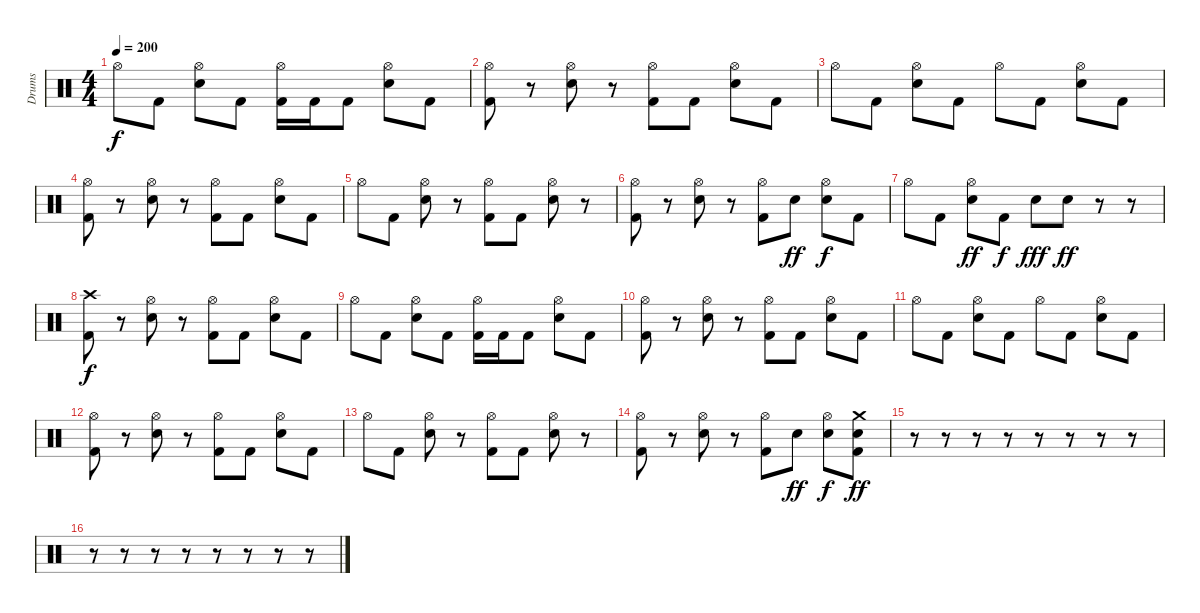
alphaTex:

\track ("Drums" "Drums") {instrument percussion}
\staff {score}
\articulation defaults
\ts (4 4)
\tempo 200
\clef neutral
\ks c "Hi-Hat (open)".8{dy f} "Kick (hit) 2".8
("Electric Snare (hit)" "Hi-Hat (open)").8 "Kick (hit) 2".8 ("Kick (hit) 2" "Hi-Hat (open)").16 "Kick (hit) 2".16 "Kick (hit) 2".8 ("Electric Snare (hit)" "Hi-Hat (open)").8 "Kick (hit) 2".8 |
("Kick (hit) 2" "Hi-Hat (open)").8 r.8 ("Electric Snare (hit)" "Hi-Hat (open)").8 r.8 ("Kick (hit) 2" "Hi-Hat (open)").8 "Kick (hit) 2".8 ("Electric Snare (hit)" "Hi-Hat (open)").8 "Kick (hit) 2".8 |
"Hi-Hat (open)".8 "Kick (hit) 2".8 ("Electric Snare (hit)" "Hi-Hat (open)").8 "Kick (hit) 2".8 "Hi-Hat (open)".8 "Kick (hit) 2".8 ("Electric Snare (hit)" "Hi-Hat (open)").8 "Kick (hit) 2".8 |
("Kick (hit) 2" "Hi-Hat (open)").8 r.8 ("Electric Snare (hit)" "Hi-Hat (open)").8 r.8 ("Kick (hit) 2" "Hi-Hat (open)").8 "Kick (hit) 2".8 ("Electric Snare (hit)" "Hi-Hat (open)").8 "Kick (hit) 2".8 |
"Hi-Hat (open)".8 "Kick (hit) 2".8 ("Electric Snare (hit)" "Hi-Hat (open)").8 r.8 ("Kick (hit) 2" "Hi-Hat (open)").8 "Kick (hit) 2".8 ("Electric Snare (hit)" "Hi-Hat (open)").8 r.8 |
("Kick (hit) 2" "Hi-Hat (open)").8 r.8 ("Electric Snare (hit)" "Hi-Hat (open)").8 r.8 ("Kick (hit) 2" "Hi-Hat (open)").8 "Electric Snare (hit)".8{dy ff} ("Electric Snare (hit)" "Hi-Hat (open)").8{dy f} "Kick (hit) 2".8 |
"Hi-Hat (open)".8 "Kick (hit) 2".8 ("Electric Snare (hit)" "Hi-Hat (open)").8{dy ff} "Kick (hit) 2".8{dy f} "Electric Snare (hit)".8{dy fff} "Electric Snare (hit)".8{dy ff} r.8 r.8 |
("Kick (hit) 2" "Crash high (hit)").8{dy f} r.8 ("Electric Snare (hit)" "Hi-Hat (open)").8 r.8 ("Kick (hit) 2" "Hi-Hat (open)").8 "Kick (hit) 2".8 ("Electric Snare (hit)" "Hi-Hat (open)").8 "Kick (hit) 2".8 |
"Hi-Hat (open)".8 "Kick (hit) 2".8 ("Electric Snare (hit)" "Hi-Hat (open)").8 "Kick (hit) 2".8 ("Kick (hit) 2" "Hi-Hat (open)").16 "Kick (hit) 2".16 "Kick (hit) 2".8 ("Electric Snare (hit)" "Hi-Hat (open)").8 "Kick (hit) 2".8 |
("Kick (hit) 2" "Hi-Hat (open)").8 r.8 ("Electric Snare (hit)" "Hi-Hat (open)").8 r.8 ("Kick (hit) 2" "Hi-Hat (open)").8 "Kick (hit) 2".8 ("Electric Snare (hit)" "Hi-Hat (open)").8 "Kick (hit) 2".8 |
"Hi-Hat (open)".8 "Kick (hit) 2".8 ("Electric Snare (hit)" "Hi-Hat (open)").8 "Kick (hit) 2".8 "Hi-Hat (open)".8 "Kick (hit) 2".8 ("Electric Snare (hit)" "Hi-Hat (open)").8 "Kick (hit) 2".8 |
("Kick (hit) 2" "Hi-Hat (open)").8 r.8 ("Electric Snare (hit)" "Hi-Hat (open)").8 r.8 ("Kick (hit) 2" "Hi-Hat (open)").8 "Kick (hit) 2".8 ("Electric Snare (hit)" "Hi-Hat (open)").8 "Kick (hit) 2".8 |
"Hi-Hat (open)".8 "Kick (hit) 2".8 ("Electric Snare (hit)" "Hi-Hat (open)").8 r.8 ("Kick (hit) 2" "Hi-Hat (open)").8 "Kick (hit) 2".8 ("Electric Snare (hit)" "Hi-Hat (open)").8 r.8 |
("Kick (hit) 2" "Hi-Hat (open)").8 r.8 ("Electric Snare (hit)" "Hi-Hat (open)").8 r.8 ("Kick (hit) 2" "Hi-Hat (open)").8 "Electric Snare (hit)".8{dy ff} ("Electric Snare (hit)" "Hi-Hat (open)").8{dy f} ("Kick (hit) 2" "Electric Snare (hit)" "Crash medium (hit)").8{dy ff} |
r.8 r.8 r.8 r.8 r.8 r.8 r.8 r.8 |
r.8 r.8 r.8 r.8 r.8 r.8 r.8 r.8
